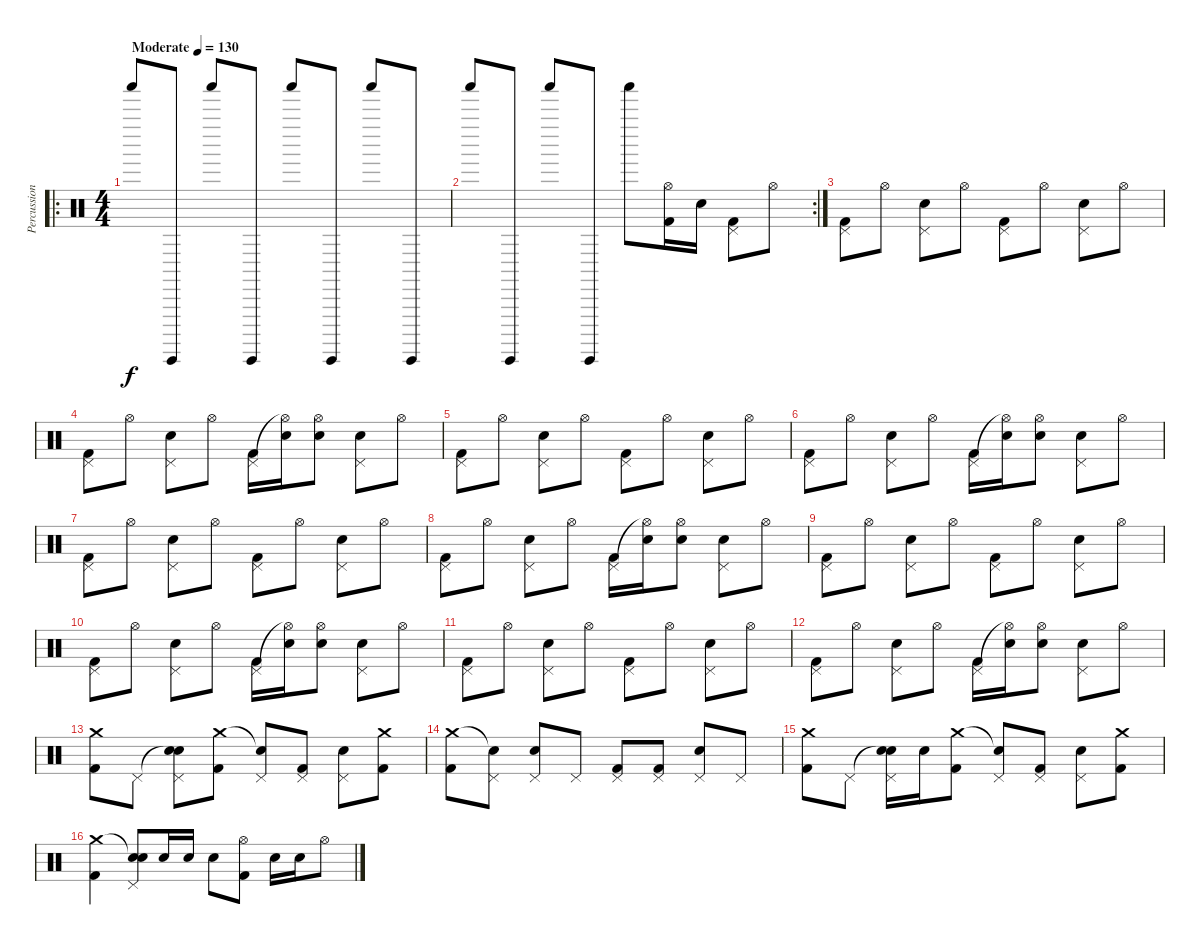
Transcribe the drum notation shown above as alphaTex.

\track ("Percussion" "Percussion") {instrument percussion}
\staff {score}
\articulation defaults
\ro
\ts (4 4)
\tempo (130 "Moderate")
\clef neutral
\ks c "Shaker (hit)".8{dy f} "Guiro (hit)".8 "Shaker (hit)".8 "Guiro (hit)".8 "Shaker (hit)".8 "Guiro (hit)".8 "Shaker (hit)".8 "Guiro (hit)".8
|
\rc 2 "Shaker (hit)".8 "Guiro (hit)".8 "Shaker (hit)".8 "Guiro (hit)".8 "Shaker (hit)".8
("Hi-Hat (open)" "Kick (hit) 2").16 "Snare (hit) 2".16 ("Pedal Hi-Hat (hit)" "Kick (hit) 2").8 "Hi-Hat (open)".8 |
("Pedal Hi-Hat (hit)" "Kick (hit) 2").8 "Hi-Hat (open)".8 ("Pedal Hi-Hat (hit)" "Snare (hit) 2").8 "Hi-Hat (open)".8 ("Pedal Hi-Hat (hit)" "Kick (hit) 2").8 "Hi-Hat (open)".8 ("Pedal Hi-Hat (hit)" "Snare (hit) 2").8 "Hi-Hat (open)".8 |
("Pedal Hi-Hat (hit)" "Kick (hit) 2").8 "Hi-Hat (open)".8 ("Pedal Hi-Hat (hit)" "Snare (hit) 2").8 "Hi-Hat (open)".8 ("Pedal Hi-Hat (hit)" "Kick (hit) 2").16 ("Hi-Hat (open)"{t} "Snare (hit) 2").16 ("Hi-Hat (open)" "Snare (hit) 2").8 ("Pedal Hi-Hat (hit)" "Snare (hit) 2").8 "Hi-Hat (open)".8 |
("Pedal Hi-Hat (hit)" "Kick (hit) 2").8 "Hi-Hat (open)".8 ("Pedal Hi-Hat (hit)" "Snare (hit) 2").8 "Hi-Hat (open)".8 ("Pedal Hi-Hat (hit)" "Kick (hit) 2").8 "Hi-Hat (open)".8 ("Pedal Hi-Hat (hit)" "Snare (hit) 2").8 "Hi-Hat (open)".8 |
("Pedal Hi-Hat (hit)" "Kick (hit) 2").8 "Hi-Hat (open)".8 ("Pedal Hi-Hat (hit)" "Snare (hit) 2").8 "Hi-Hat (open)".8 ("Pedal Hi-Hat (hit)" "Kick (hit) 2").16 ("Hi-Hat (open)"{t} "Snare (hit) 2").16 ("Hi-Hat (open)" "Snare (hit) 2").8 ("Pedal Hi-Hat (hit)" "Snare (hit) 2").8 "Hi-Hat (open)".8 |
("Pedal Hi-Hat (hit)" "Kick (hit) 2").8 "Hi-Hat (open)".8 ("Pedal Hi-Hat (hit)" "Snare (hit) 2").8 "Hi-Hat (open)".8 ("Pedal Hi-Hat (hit)" "Kick (hit) 2").8 "Hi-Hat (open)".8 ("Pedal Hi-Hat (hit)" "Snare (hit) 2").8 "Hi-Hat (open)".8 |
("Pedal Hi-Hat (hit)" "Kick (hit) 2").8 "Hi-Hat (open)".8 ("Pedal Hi-Hat (hit)" "Snare (hit) 2").8 "Hi-Hat (open)".8 ("Pedal Hi-Hat (hit)" "Kick (hit) 2").16 ("Hi-Hat (open)"{t} "Snare (hit) 2").16 ("Hi-Hat (open)" "Snare (hit) 2").8 ("Pedal Hi-Hat (hit)" "Snare (hit) 2").8 "Hi-Hat (open)".8 |
("Pedal Hi-Hat (hit)" "Kick (hit) 2").8 "Hi-Hat (open)".8 ("Pedal Hi-Hat (hit)" "Snare (hit) 2").8 "Hi-Hat (open)".8 ("Pedal Hi-Hat (hit)" "Kick (hit) 2").8 "Hi-Hat (open)".8 ("Pedal Hi-Hat (hit)" "Snare (hit) 2").8 "Hi-Hat (open)".8 |
("Pedal Hi-Hat (hit)" "Kick (hit) 2").8 "Hi-Hat (open)".8 ("Pedal Hi-Hat (hit)" "Snare (hit) 2").8 "Hi-Hat (open)".8 ("Pedal Hi-Hat (hit)" "Kick (hit) 2").16 ("Hi-Hat (open)"{t} "Snare (hit) 2").16 ("Hi-Hat (open)" "Snare (hit) 2").8 ("Pedal Hi-Hat (hit)" "Snare (hit) 2").8 "Hi-Hat (open)".8 |
("Pedal Hi-Hat (hit)" "Kick (hit) 2").8 "Hi-Hat (open)".8 ("Pedal Hi-Hat (hit)" "Snare (hit) 2").8 "Hi-Hat (open)".8 ("Pedal Hi-Hat (hit)" "Kick (hit) 2").8 "Hi-Hat (open)".8 ("Pedal Hi-Hat (hit)" "Snare (hit) 2").8 "Hi-Hat (open)".8 |
("Pedal Hi-Hat (hit)" "Kick (hit) 2").8 "Hi-Hat (open)".8 ("Pedal Hi-Hat (hit)" "Snare (hit) 2").8 "Hi-Hat (open)".8 ("Pedal Hi-Hat (hit)" "Kick (hit) 2").16 ("Hi-Hat (open)"{t} "Snare (hit) 2").16 ("Hi-Hat (open)" "Snare (hit) 2").8 ("Pedal Hi-Hat (hit)" "Snare (hit) 2").8 "Hi-Hat (open)".8 |
("Crash medium (hit)" "Kick (hit) 2").8 "Pedal Hi-Hat (hit)".8 ("Snare (hit)"{t} "Pedal Hi-Hat (hit)" "Snare (hit) 2").8 ("Crash medium (hit)" "Kick (hit) 2").8 ("Snare (hit)"{t} "Pedal Hi-Hat (hit)").8 ("Pedal Hi-Hat (hit)" "Kick (hit) 2").8 ("Pedal Hi-Hat (hit)" "Snare (hit) 2").8 ("Crash medium (hit)" "Kick (hit) 2").8 |
("Crash medium (hit)" "Kick (hit) 2").8 ("Snare (hit)"{t} "Pedal Hi-Hat (hit)").8 ("Pedal Hi-Hat (hit)" "Snare (hit) 2").8 "Pedal Hi-Hat (hit)".8 ("Pedal Hi-Hat (hit)" "Kick (hit) 2").8 ("Pedal Hi-Hat (hit)" "Kick (hit) 2").8 ("Pedal Hi-Hat (hit)" "Snare (hit) 2").8 "Pedal Hi-Hat (hit)".8 |
("Crash medium (hit)" "Kick (hit) 2").8 "Pedal Hi-Hat (hit)".8 ("Snare (hit)"{t} "Pedal Hi-Hat (hit)" "Snare (hit) 2").16 "Snare (hit) 2".16 ("Crash medium (hit)" "Kick (hit) 2").8 ("Snare (hit)"{t} "Pedal Hi-Hat (hit)").8 ("Pedal Hi-Hat (hit)" "Kick (hit) 2").8 ("Pedal Hi-Hat (hit)" "Snare (hit) 2").8 ("Crash medium (hit)" "Kick (hit) 2").8 |
("Crash medium (hit)" "Kick (hit) 2").4 ("Snare (hit)"{t} "Pedal Hi-Hat (hit)" "Snare (hit) 2").8 "Snare (hit) 2".16 "Snare (hit) 2".16 "Snare (hit) 2".8 ("Hi-Hat (open)" "Kick (hit) 2").8 "Snare (hit) 2".16 "Snare (hit) 2".16 "Hi-Hat (open)".8
